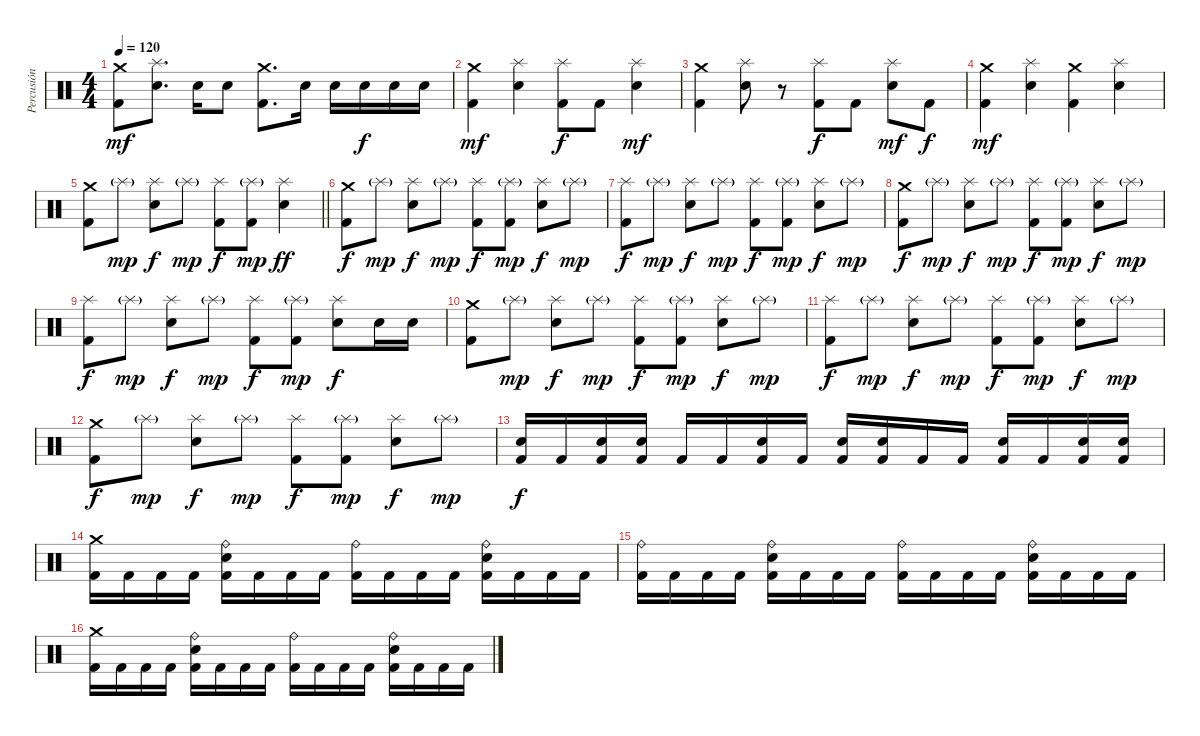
\track ("Percusión" "Percusión") {instrument percussion}
\staff {score}
\articulation defaults
\ts (4 4)
\tempo 120
\clef neutral
\ks c
("Crash medium (hit)" "Kick (hit) 2").8{dy mf} ("Splash (hit)" "Electric Snare (hit)").8{d} "Electric Snare (hit)".16 "Electric Snare (hit)".8 ("Crash medium (hit)" "Kick (hit) 2").8{d} "Electric Snare (hit)".16 "Electric Snare (hit)".16 "Electric Snare (hit)".16{dy f} "Electric Snare (hit)".16 "Electric Snare (hit)".16 |
("Crash medium (hit)" "Kick (hit) 2").4{dy mf} ("Splash (hit)" "Electric Snare (hit)").4 ("Splash (hit)" "Kick (hit) 2").8{dy f} "Kick (hit) 2".8 ("Splash (hit)" "Electric Snare (hit)").4{dy mf} |
("Crash medium (hit)" "Kick (hit) 2").4 ("Splash (hit)" "Electric Snare (hit)").8 r.8 ("Splash (hit)" "Kick (hit) 2").8{dy f} "Kick (hit) 2".8 ("Splash (hit)" "Electric Snare (hit)").8{dy mf} "Kick (hit) 2".8{dy f} |
("Crash medium (hit)" "Kick (hit) 2").4{dy mf} ("Splash (hit)" "Electric Snare (hit)").4 ("Crash medium (hit)" "Kick (hit) 2").4 ("Splash (hit)" "Electric Snare (hit)").4 |
\barLineRight lightlight
("Crash medium (hit)" "Kick (hit) 2").8 "Splash (hit)"{g}.8{dy mp} ("Splash (hit)" "Electric Snare (hit)").8{dy f} "Splash (hit)"{g}.8{dy mp} ("Splash (hit)" "Kick (hit) 2").8{dy f} ("Splash (hit)"{g} "Kick (hit) 2").8{dy mp} ("Splash (hit)" "Electric Snare (hit)").4{dy ff} |
("Crash medium (hit)" "Kick (hit) 2").8{dy f} "Splash (hit)"{g}.8{dy mp} ("Splash (hit)" "Electric Snare (hit)").8{dy f} "Splash (hit)"{g}.8{dy mp} ("Splash (hit)" "Kick (hit) 2").8{dy f} ("Splash (hit)"{g} "Kick (hit) 2").8{dy mp} ("Splash (hit)" "Electric Snare (hit)").8{dy f} "Splash (hit)"{g}.8{dy mp} |
("Splash (hit)" "Kick (hit) 2").8{dy f} "Splash (hit)"{g}.8{dy mp} ("Splash (hit)" "Electric Snare (hit)").8{dy f} "Splash (hit)"{g}.8{dy mp} ("Splash (hit)" "Kick (hit) 2").8{dy f} ("Splash (hit)"{g} "Kick (hit) 2").8{dy mp} ("Splash (hit)" "Electric Snare (hit)").8{dy f} "Splash (hit)"{g}.8{dy mp} |
("Crash medium (hit)" "Kick (hit) 2").8{dy f} "Splash (hit)"{g}.8{dy mp} ("Splash (hit)" "Electric Snare (hit)").8{dy f} "Splash (hit)"{g}.8{dy mp} ("Splash (hit)" "Kick (hit) 2").8{dy f} ("Splash (hit)"{g} "Kick (hit) 2").8{dy mp} ("Splash (hit)" "Electric Snare (hit)").8{dy f} "Splash (hit)"{g}.8{dy mp} |
("Splash (hit)" "Kick (hit) 2").8{dy f} "Splash (hit)"{g}.8{dy mp} ("Splash (hit)" "Electric Snare (hit)").8{dy f} "Splash (hit)"{g}.8{dy mp} ("Splash (hit)" "Kick (hit) 2").8{dy f} ("Splash (hit)"{g} "Kick (hit) 2").8{dy mp} ("Splash (hit)" "Electric Snare (hit)").8{dy f} "Electric Snare (hit)".16 "Electric Snare (hit)".16 |
("Crash medium (hit)" "Kick (hit) 2").8 "Splash (hit)"{g}.8{dy mp} ("Splash (hit)" "Electric Snare (hit)").8{dy f} "Splash (hit)"{g}.8{dy mp} ("Splash (hit)" "Kick (hit) 2").8{dy f} ("Splash (hit)"{g} "Kick (hit) 2").8{dy mp} ("Splash (hit)" "Electric Snare (hit)").8{dy f} "Splash (hit)"{g}.8{dy mp} |
("Splash (hit)" "Kick (hit) 2").8{dy f} "Splash (hit)"{g}.8{dy mp} ("Splash (hit)" "Electric Snare (hit)").8{dy f} "Splash (hit)"{g}.8{dy mp} ("Splash (hit)" "Kick (hit) 2").8{dy f} ("Splash (hit)"{g} "Kick (hit) 2").8{dy mp} ("Splash (hit)" "Electric Snare (hit)").8{dy f} "Splash (hit)"{g}.8{dy mp} |
("Crash medium (hit)" "Kick (hit) 2").8{dy f} "Splash (hit)"{g}.8{dy mp} ("Splash (hit)" "Electric Snare (hit)").8{dy f} "Splash (hit)"{g}.8{dy mp} ("Splash (hit)" "Kick (hit) 2").8{dy f} ("Splash (hit)"{g} "Kick (hit) 2").8{dy mp} ("Splash (hit)" "Electric Snare (hit)").8{dy f} "Splash (hit)"{g}.8{dy mp} |
("Electric Snare (hit)" "Kick (hit) 2").16{dy f} "Kick (hit) 2".16 ("Electric Snare (hit)" "Kick (hit) 2").16 ("Electric Snare (hit)" "Kick (hit) 2").16 "Kick (hit) 2".16 "Kick (hit) 2".16 ("Electric Snare (hit)" "Kick (hit) 2").16 "Kick (hit) 2".16 ("Electric Snare (hit)" "Kick (hit) 2").16 ("Electric Snare (hit)" "Kick (hit) 2").16 "Kick (hit) 2".16 "Kick (hit) 2".16 ("Electric Snare (hit)" "Kick (hit) 2").16 "Kick (hit) 2".16 ("Electric Snare (hit)" "Kick (hit) 2").16 ("Electric Snare (hit)" "Kick (hit) 2").16 |
("Crash medium (hit)" "Kick (hit) 2").16 "Kick (hit) 2".16 "Kick (hit) 2".16 "Kick (hit) 2".16 ("Ride (bell)" "Electric Snare (hit)" "Kick (hit) 2").16 "Kick (hit) 2".16 "Kick (hit) 2".16 "Kick (hit) 2".16 ("Ride (bell)" "Kick (hit) 2").16 "Kick (hit) 2".16 "Kick (hit) 2".16 "Kick (hit) 2".16 ("Ride (bell)" "Electric Snare (hit)" "Kick (hit) 2").16 "Kick (hit) 2".16 "Kick (hit) 2".16 "Kick (hit) 2".16 |
("Ride (bell)" "Kick (hit) 2").16 "Kick (hit) 2".16 "Kick (hit) 2".16 "Kick (hit) 2".16 ("Ride (bell)" "Electric Snare (hit)" "Kick (hit) 2").16 "Kick (hit) 2".16 "Kick (hit) 2".16 "Kick (hit) 2".16 ("Ride (bell)" "Kick (hit) 2").16 "Kick (hit) 2".16 "Kick (hit) 2".16 "Kick (hit) 2".16 ("Ride (bell)" "Electric Snare (hit)" "Kick (hit) 2").16 "Kick (hit) 2".16 "Kick (hit) 2".16 "Kick (hit) 2".16 |
("Crash medium (hit)" "Kick (hit) 2").16 "Kick (hit) 2".16 "Kick (hit) 2".16 "Kick (hit) 2".16 ("Ride (bell)" "Electric Snare (hit)" "Kick (hit) 2").16 "Kick (hit) 2".16 "Kick (hit) 2".16 "Kick (hit) 2".16 ("Ride (bell)" "Kick (hit) 2").16 "Kick (hit) 2".16 "Kick (hit) 2".16 "Kick (hit) 2".16 ("Ride (bell)" "Electric Snare (hit)" "Kick (hit) 2").16 "Kick (hit) 2".16 "Kick (hit) 2".16 "Kick (hit) 2".16
